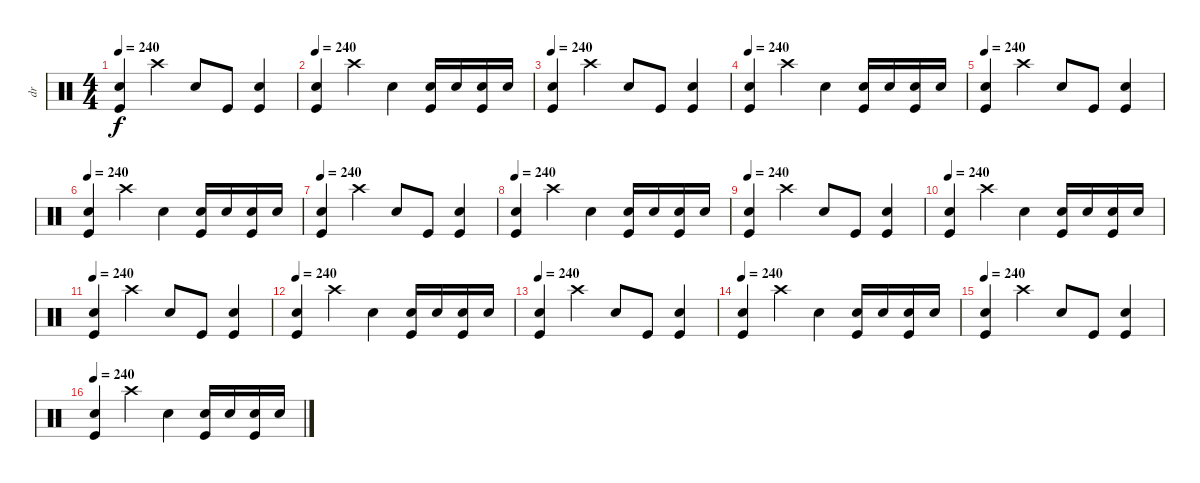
\track ("dr" "dr") {instrument percussion}
\staff {score}
\articulation defaults
\ts (4 4)
\tempo 240
\clef neutral
\ks c
("Snare (hit) 2" "Kick (hit)").4{dy f} "Crash high (hit)".4 "Snare (hit) 2".8 "Kick (hit)".8 ("Snare (hit) 2" "Kick (hit)").4 |
\tempo 240
("Snare (hit) 2" "Kick (hit)").4 "Crash high (hit)".4 "Snare (hit) 2".4 ("Snare (hit) 2" "Kick (hit)").16 "Snare (hit) 2".16 ("Snare (hit) 2" "Kick (hit)").16 "Snare (hit) 2".16 |
\tempo 240
("Snare (hit) 2" "Kick (hit)").4 "Crash high (hit)".4 "Snare (hit) 2".8 "Kick (hit)".8 ("Snare (hit) 2" "Kick (hit)").4 |
\tempo 240
("Snare (hit) 2" "Kick (hit)").4 "Crash high (hit)".4 "Snare (hit) 2".4 ("Snare (hit) 2" "Kick (hit)").16 "Snare (hit) 2".16 ("Snare (hit) 2" "Kick (hit)").16 "Snare (hit) 2".16 |
\tempo 240
("Snare (hit) 2" "Kick (hit)").4 "Crash high (hit)".4 "Snare (hit) 2".8 "Kick (hit)".8 ("Snare (hit) 2" "Kick (hit)").4 |
\tempo 240
("Snare (hit) 2" "Kick (hit)").4 "Crash high (hit)".4 "Snare (hit) 2".4 ("Snare (hit) 2" "Kick (hit)").16 "Snare (hit) 2".16 ("Snare (hit) 2" "Kick (hit)").16 "Snare (hit) 2".16 |
\tempo 240
("Snare (hit) 2" "Kick (hit)").4 "Crash high (hit)".4 "Snare (hit) 2".8 "Kick (hit)".8 ("Snare (hit) 2" "Kick (hit)").4 |
\tempo 240
("Snare (hit) 2" "Kick (hit)").4 "Crash high (hit)".4 "Snare (hit) 2".4 ("Snare (hit) 2" "Kick (hit)").16 "Snare (hit) 2".16 ("Snare (hit) 2" "Kick (hit)").16 "Snare (hit) 2".16 |
\tempo 240
("Snare (hit) 2" "Kick (hit)").4 "Crash high (hit)".4 "Snare (hit) 2".8 "Kick (hit)".8 ("Snare (hit) 2" "Kick (hit)").4 |
\tempo 240
("Snare (hit) 2" "Kick (hit)").4 "Crash high (hit)".4 "Snare (hit) 2".4 ("Snare (hit) 2" "Kick (hit)").16 "Snare (hit) 2".16 ("Snare (hit) 2" "Kick (hit)").16 "Snare (hit) 2".16 |
\tempo 240
("Snare (hit) 2" "Kick (hit)").4 "Crash high (hit)".4 "Snare (hit) 2".8 "Kick (hit)".8 ("Snare (hit) 2" "Kick (hit)").4 |
\tempo 240
("Snare (hit) 2" "Kick (hit)").4 "Crash high (hit)".4 "Snare (hit) 2".4 ("Snare (hit) 2" "Kick (hit)").16 "Snare (hit) 2".16 ("Snare (hit) 2" "Kick (hit)").16 "Snare (hit) 2".16 |
\tempo 240
("Snare (hit) 2" "Kick (hit)").4 "Crash high (hit)".4 "Snare (hit) 2".8 "Kick (hit)".8 ("Snare (hit) 2" "Kick (hit)").4 |
\tempo 240
("Snare (hit) 2" "Kick (hit)").4 "Crash high (hit)".4 "Snare (hit) 2".4 ("Snare (hit) 2" "Kick (hit)").16 "Snare (hit) 2".16 ("Snare (hit) 2" "Kick (hit)").16 "Snare (hit) 2".16 |
\tempo 240
("Snare (hit) 2" "Kick (hit)").4 "Crash high (hit)".4 "Snare (hit) 2".8 "Kick (hit)".8 ("Snare (hit) 2" "Kick (hit)").4 |
\tempo 240
("Snare (hit) 2" "Kick (hit)").4 "Crash high (hit)".4 "Snare (hit) 2".4 ("Snare (hit) 2" "Kick (hit)").16 "Snare (hit) 2".16 ("Snare (hit) 2" "Kick (hit)").16 "Snare (hit) 2".16
